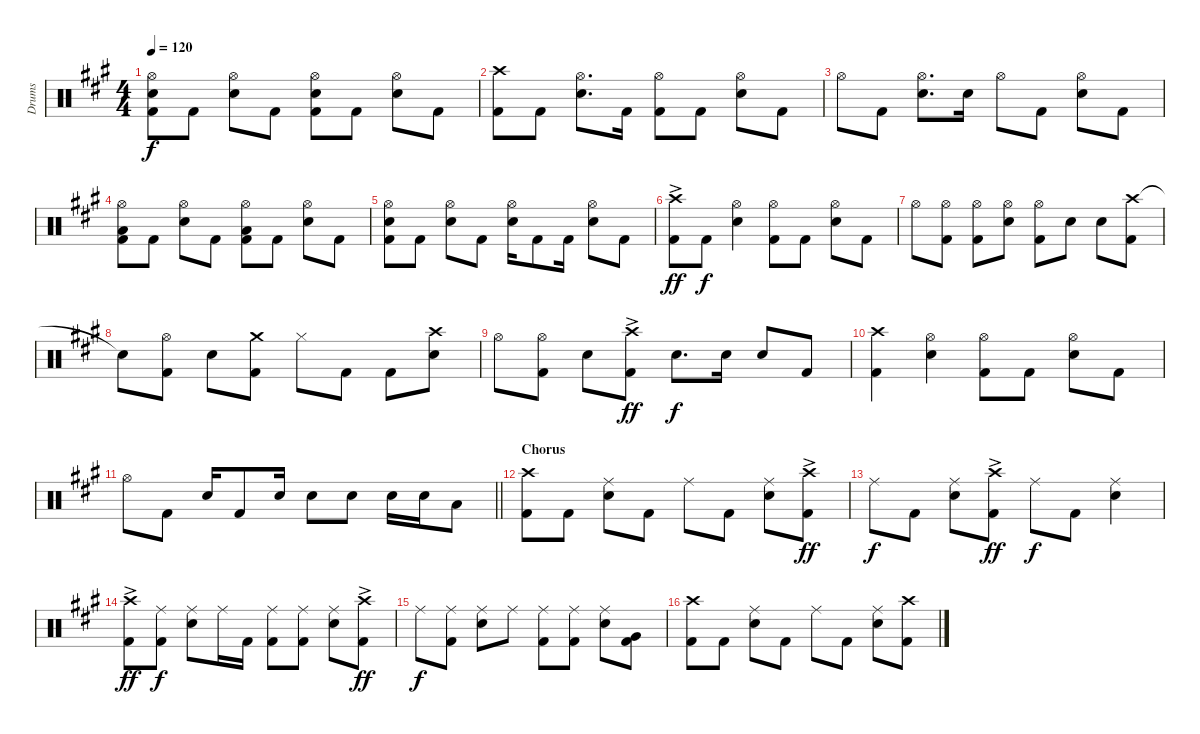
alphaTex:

\track ("Drums" "Drums") {instrument percussion}
\staff {score}
\articulation defaults
\ts (4 4)
\tempo 120
\clef neutral
\ks a
("Hi-Hat (open)" "Snare (hit) 2" "Kick (hit) 2").8{dy f} "Kick (hit) 2".8 ("Hi-Hat (open)" "Snare (hit) 2").8 "Kick (hit) 2".8 ("Hi-Hat (open)" "Snare (hit) 2" "Kick (hit) 2").8 "Kick (hit) 2".8 ("Hi-Hat (open)" "Snare (hit) 2").8 "Kick (hit) 2".8 |
("Crash high (hit)" "Kick (hit) 2").8 "Kick (hit) 2".8 ("Hi-Hat (open)" "Snare (hit) 2").8{d} "Kick (hit) 2".16 ("Hi-Hat (open)" "Kick (hit) 2").8 "Kick (hit) 2".8 ("Hi-Hat (open)" "Snare (hit) 2").8 "Kick (hit) 2".8 |
"Hi-Hat (open)".8 "Kick (hit) 2".8 ("Hi-Hat (open)" "Snare (hit) 2").8{d} "Snare (hit) 2".16 "Hi-Hat (open)".8 "Kick (hit) 2".8 ("Hi-Hat (open)" "Snare (hit) 2").8 "Kick (hit) 2".8 |
("Hi-Hat (open)" "Low Tom (hit)" "Kick (hit) 2").8 "Kick (hit) 2".8 ("Hi-Hat (open)" "Snare (hit) 2").8 "Kick (hit) 2".8 ("Hi-Hat (open)" "Low Tom (hit)" "Kick (hit) 2").8 "Kick (hit) 2".8 ("Hi-Hat (open)" "Snare (hit) 2").8 "Kick (hit) 2".8 |
("Hi-Hat (open)" "Snare (hit) 2" "Kick (hit) 2").8 "Kick (hit) 2".8 ("Hi-Hat (open)" "Snare (hit) 2").8 "Kick (hit) 2".8 ("Hi-Hat (open)" "Snare (hit) 2").16 "Kick (hit) 2".8 "Kick (hit) 2".16 ("Hi-Hat (open)" "Snare (hit) 2").8 "Kick (hit) 2".8 |
("Crash high (hit)"{ac} "Kick (hit) 2").8{dy ff} "Kick (hit) 2".8{dy f} ("Hi-Hat (open)" "Snare (hit) 2").4 ("Hi-Hat (open)" "Kick (hit) 2").8 "Kick (hit) 2".8 ("Hi-Hat (open)" "Snare (hit) 2").8 "Kick (hit) 2".8 |
"Hi-Hat (open)".8 ("Hi-Hat (open)" "Kick (hit) 2").8 ("Hi-Hat (open)" "Kick (hit) 2").8 ("Hi-Hat (open)" "Snare (hit) 2").8 ("Hi-Hat (open)" "Kick (hit) 2").8 "Snare (hit) 2".8 "Snare (hit) 2".8 ("Crash high (hit)" "Kick (hit) 2").8 |
"Snare (hit)"{t}.8 ("Hi-Hat (open)" "Kick (hit) 2").8 "Snare (hit) 2".8 ("Crash medium (hit)" "Kick (hit) 2").8 "Hi-Hat (closed)".8 "Kick (hit) 2".8 "Kick (hit) 2".8 ("Crash high (hit)" "Snare (hit) 2").8 |
"Hi-Hat (open)".8 ("Hi-Hat (open)" "Kick (hit) 2").8 "Snare (hit) 2".8 ("Crash high (hit)"{ac} "Kick (hit) 2").8{dy ff} "Snare (hit) 2".8{d dy f} "Snare (hit) 2".16 "Snare (hit) 2".8 "Kick (hit) 2".8 |
("Crash high (hit)" "Kick (hit) 2").4 ("Hi-Hat (open)" "Snare (hit) 2").4 ("Hi-Hat (open)" "Kick (hit) 2").8 "Kick (hit) 2".8 ("Hi-Hat (open)" "Snare (hit) 2").8 "Kick (hit) 2".8 |
\barLineRight lightlight "Hi-Hat (open)".8 "Kick (hit) 2".8 "Snare (hit) 2".16 "Kick (hit) 2".8 "Snare (hit) 2".16 "Snare (hit) 2".8 "Snare (hit) 2".8 "Snare (hit) 2".16 "Snare (hit) 2".16 "Low Tom (hit)".8
|
\section ("" "Chorus")
("Crash high (hit)" "Kick (hit) 2").8 "Kick (hit) 2".8 ("Ride (middle)" "Snare (hit) 2").8 "Kick (hit) 2".8 "Ride (middle)".8 "Kick (hit) 2".8 ("Ride (middle)" "Snare (hit) 2").8 ("Crash high (hit)"{ac} "Kick (hit) 2").8{dy ff} |
"Ride (middle)".8{dy f} "Kick (hit) 2".8 ("Ride (middle)" "Snare (hit) 2").8 ("Crash high (hit)"{ac} "Kick (hit) 2").8{dy ff} "Ride (middle)".8{dy f} "Kick (hit) 2".8 ("Ride (middle)" "Snare (hit) 2").4 |
("Crash high (hit)"{ac} "Kick (hit) 2").8{dy ff} ("Ride (middle)" "Kick (hit) 2").8{dy f} ("Ride (middle)" "Snare (hit) 2").8 "Ride (middle)".16 "Kick (hit) 2".16 ("Ride (middle)" "Kick (hit) 2").8 ("Ride (middle)" "Kick (hit) 2").8 ("Ride (middle)" "Snare (hit) 2").8 ("Crash high (hit)"{ac} "Kick (hit) 2").8{dy ff} |
"Ride (middle)".8{dy f} ("Ride (middle)" "Kick (hit) 2").8 ("Ride (middle)" "Snare (hit) 2").8 "Ride (middle)".8 ("Ride (middle)" "Kick (hit) 2").8 ("Ride (middle)" "Kick (hit) 2").8 ("Ride (middle)" "Snare (hit) 2").8 ("Very Low Tom (hit)" "Kick (hit) 2").8 |
("Crash high (hit)" "Kick (hit) 2").8 "Kick (hit) 2".8 ("Ride (middle)" "Snare (hit) 2").8 "Kick (hit) 2".8 "Ride (middle)".8 "Kick (hit) 2".8 ("Ride (middle)" "Snare (hit) 2").8 ("Crash high (hit)" "Kick (hit) 2").8
